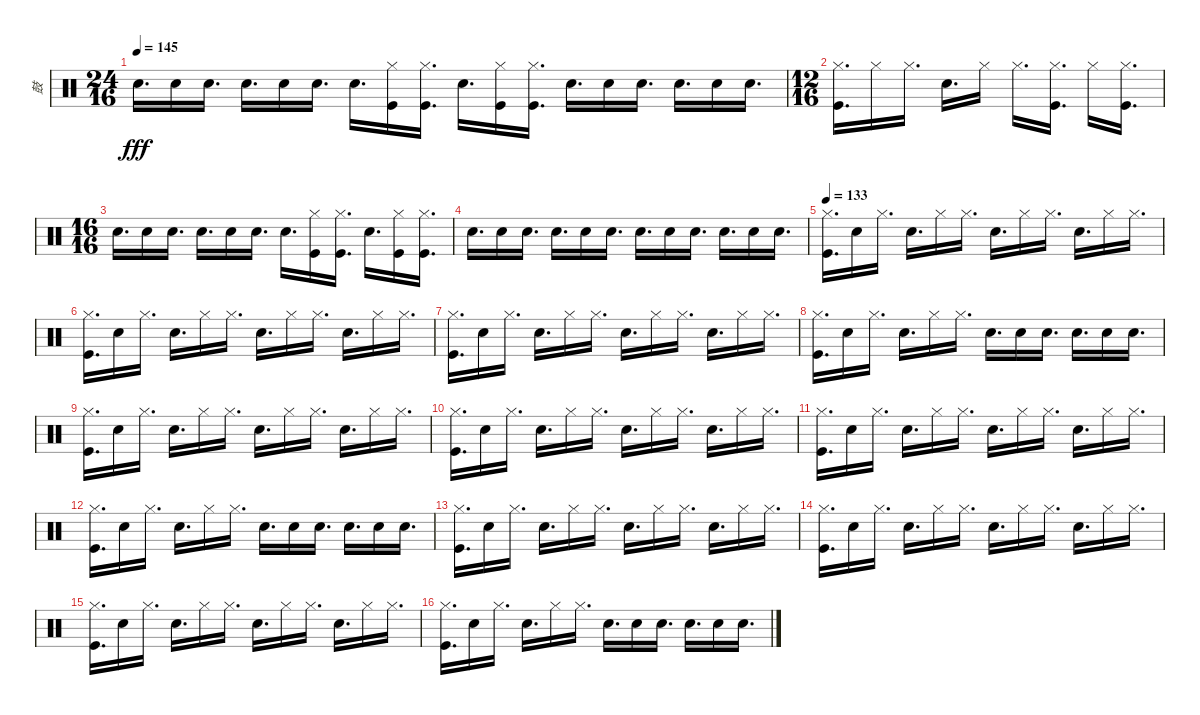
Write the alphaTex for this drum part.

\track ("鼓" "鼓") {instrument percussion}
\staff {score}
\articulation defaults
\ts (24 16)
\tempo 145
\clef neutral
\ks c "Snare (hit) 2".16{d dy fff} "Snare (hit) 2".16 "Snare (hit) 2".16{d} "Snare (hit) 2".16{d} "Snare (hit) 2".16 "Snare (hit) 2".16{d} "Snare (hit) 2".16{d}
("Hi-Hat (closed)" "Kick (hit)").16 ("Hi-Hat (closed)" "Kick (hit)").16{d} "Snare (hit) 2".16{d} ("Hi-Hat (closed)" "Kick (hit)").16 ("Hi-Hat (closed)" "Kick (hit)").16{d} "Snare (hit) 2".16{d} "Snare (hit) 2".16 "Snare (hit) 2".16{d} "Snare (hit) 2".16{d} "Snare (hit) 2".16 "Snare (hit) 2".16{d} |
\ts (12 16)
("Hi-Hat (closed)" "Kick (hit)").16{d} "Hi-Hat (closed)".16 "Hi-Hat (closed)".16{d} "Snare (hit) 2".16{d} "Hi-Hat (closed)".16 "Hi-Hat (closed)".16{d} ("Hi-Hat (closed)" "Kick (hit)").16{d} "Hi-Hat (closed)".16 ("Hi-Hat (closed)" "Kick (hit)").16{d} |
\ts (16 16)
"Snare (hit) 2".16{d} "Snare (hit) 2".16 "Snare (hit) 2".16{d} "Snare (hit) 2".16{d} "Snare (hit) 2".16 "Snare (hit) 2".16{d} "Snare (hit) 2".16{d} ("Hi-Hat (closed)" "Kick (hit)").16 ("Hi-Hat (closed)" "Kick (hit)").16{d} "Snare (hit) 2".16{d} ("Hi-Hat (closed)" "Kick (hit)").16 ("Hi-Hat (closed)" "Kick (hit)").16{d} |
"Snare (hit) 2".16{d} "Snare (hit) 2".16 "Snare (hit) 2".16{d} "Snare (hit) 2".16{d} "Snare (hit) 2".16 "Snare (hit) 2".16{d} "Snare (hit) 2".16{d} "Snare (hit) 2".16 "Snare (hit) 2".16{d} "Snare (hit) 2".16{d} "Snare (hit) 2".16 "Snare (hit) 2".16{d} |
\tempo 133
("Hi-Hat (closed)" "Kick (hit)").16{d} "Electric Snare (hit)".16 "Hi-Hat (closed)".16{d} "Electric Snare (hit)".16{d} "Hi-Hat (closed)".16 "Hi-Hat (closed)".16{d} "Snare (hit) 2".16{d} "Hi-Hat (closed)".16 "Hi-Hat (closed)".16{d} "Electric Snare (hit)".16{d} "Hi-Hat (closed)".16 "Hi-Hat (closed)".16{d} |
("Hi-Hat (closed)" "Kick (hit)").16{d} "Electric Snare (hit)".16 "Hi-Hat (closed)".16{d} "Electric Snare (hit)".16{d} "Hi-Hat (closed)".16 "Hi-Hat (closed)".16{d} "Snare (hit) 2".16{d} "Hi-Hat (closed)".16 "Hi-Hat (closed)".16{d} "Electric Snare (hit)".16{d} "Hi-Hat (closed)".16 "Hi-Hat (closed)".16{d} |
("Hi-Hat (closed)" "Kick (hit)").16{d} "Electric Snare (hit)".16 "Hi-Hat (closed)".16{d} "Electric Snare (hit)".16{d} "Hi-Hat (closed)".16 "Hi-Hat (closed)".16{d} "Snare (hit) 2".16{d} "Hi-Hat (closed)".16 "Hi-Hat (closed)".16{d} "Electric Snare (hit)".16{d} "Hi-Hat (closed)".16 "Hi-Hat (closed)".16{d} |
("Hi-Hat (closed)" "Kick (hit)").16{d} "Electric Snare (hit)".16 "Hi-Hat (closed)".16{d} "Electric Snare (hit)".16{d} "Hi-Hat (closed)".16 "Hi-Hat (closed)".16{d} "Electric Snare (hit)".16{d} "Electric Snare (hit)".16 "Electric Snare (hit)".16{d} "Electric Snare (hit)".16{d} "Electric Snare (hit)".16 "Electric Snare (hit)".16{d} |
("Hi-Hat (closed)" "Kick (hit)").16{d} "Electric Snare (hit)".16 "Hi-Hat (closed)".16{d} "Electric Snare (hit)".16{d} "Hi-Hat (closed)".16 "Hi-Hat (closed)".16{d} "Snare (hit) 2".16{d} "Hi-Hat (closed)".16 "Hi-Hat (closed)".16{d} "Electric Snare (hit)".16{d} "Hi-Hat (closed)".16 "Hi-Hat (closed)".16{d} |
("Hi-Hat (closed)" "Kick (hit)").16{d} "Electric Snare (hit)".16 "Hi-Hat (closed)".16{d} "Electric Snare (hit)".16{d} "Hi-Hat (closed)".16 "Hi-Hat (closed)".16{d} "Snare (hit) 2".16{d} "Hi-Hat (closed)".16 "Hi-Hat (closed)".16{d} "Electric Snare (hit)".16{d} "Hi-Hat (closed)".16 "Hi-Hat (closed)".16{d} |
("Hi-Hat (closed)" "Kick (hit)").16{d} "Electric Snare (hit)".16 "Hi-Hat (closed)".16{d} "Electric Snare (hit)".16{d} "Hi-Hat (closed)".16 "Hi-Hat (closed)".16{d} "Snare (hit) 2".16{d} "Hi-Hat (closed)".16 "Hi-Hat (closed)".16{d} "Electric Snare (hit)".16{d} "Hi-Hat (closed)".16 "Hi-Hat (closed)".16{d} |
("Hi-Hat (closed)" "Kick (hit)").16{d} "Electric Snare (hit)".16 "Hi-Hat (closed)".16{d} "Electric Snare (hit)".16{d} "Hi-Hat (closed)".16 "Hi-Hat (closed)".16{d} "Electric Snare (hit)".16{d} "Electric Snare (hit)".16 "Electric Snare (hit)".16{d} "Electric Snare (hit)".16{d} "Electric Snare (hit)".16 "Electric Snare (hit)".16{d} |
("Hi-Hat (closed)" "Kick (hit)").16{d} "Electric Snare (hit)".16 "Hi-Hat (closed)".16{d} "Electric Snare (hit)".16{d} "Hi-Hat (closed)".16 "Hi-Hat (closed)".16{d} "Snare (hit) 2".16{d} "Hi-Hat (closed)".16 "Hi-Hat (closed)".16{d} "Electric Snare (hit)".16{d} "Hi-Hat (closed)".16 "Hi-Hat (closed)".16{d} |
("Hi-Hat (closed)" "Kick (hit)").16{d} "Electric Snare (hit)".16 "Hi-Hat (closed)".16{d} "Electric Snare (hit)".16{d} "Hi-Hat (closed)".16 "Hi-Hat (closed)".16{d} "Snare (hit) 2".16{d} "Hi-Hat (closed)".16 "Hi-Hat (closed)".16{d} "Electric Snare (hit)".16{d} "Hi-Hat (closed)".16 "Hi-Hat (closed)".16{d} |
("Hi-Hat (closed)" "Kick (hit)").16{d} "Electric Snare (hit)".16 "Hi-Hat (closed)".16{d} "Electric Snare (hit)".16{d} "Hi-Hat (closed)".16 "Hi-Hat (closed)".16{d} "Snare (hit) 2".16{d} "Hi-Hat (closed)".16 "Hi-Hat (closed)".16{d} "Electric Snare (hit)".16{d} "Hi-Hat (closed)".16 "Hi-Hat (closed)".16{d} |
("Hi-Hat (closed)" "Kick (hit)").16{d} "Electric Snare (hit)".16 "Hi-Hat (closed)".16{d} "Electric Snare (hit)".16{d} "Hi-Hat (closed)".16 "Hi-Hat (closed)".16{d} "Electric Snare (hit)".16{d} "Electric Snare (hit)".16 "Electric Snare (hit)".16{d} "Electric Snare (hit)".16{d} "Electric Snare (hit)".16 "Electric Snare (hit)".16{d}
